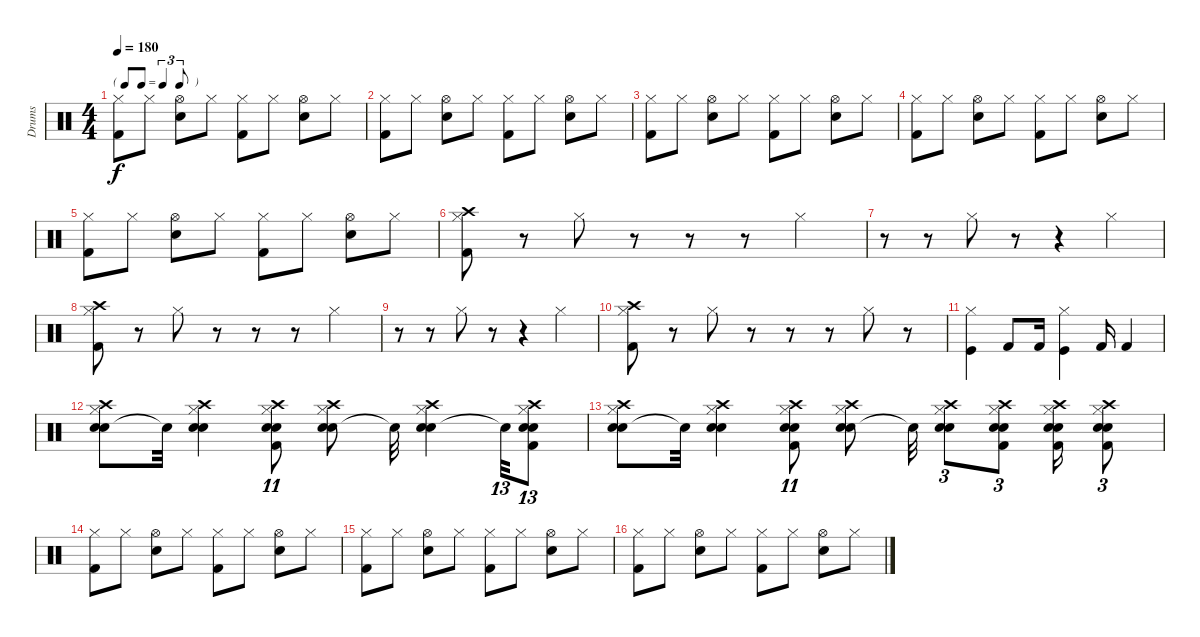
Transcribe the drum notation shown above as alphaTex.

\track ("Drums" "Drums") {instrument percussion}
\staff {score}
\articulation defaults
\ts (4 4)
\tf triplet8th
\tempo 180
\clef neutral
\ks c
("Hi-Hat (closed)" "Kick (hit) 2").8{dy f} "Hi-Hat (closed)".8 ("Hi-Hat (open)" "Snare (hit) 2").8 "Hi-Hat (closed)".8 ("Hi-Hat (closed)" "Kick (hit) 2").8 "Hi-Hat (closed)".8 ("Hi-Hat (open)" "Snare (hit) 2").8 "Hi-Hat (closed)".8 |
("Hi-Hat (closed)" "Kick (hit) 2").8 "Hi-Hat (closed)".8 ("Hi-Hat (open)" "Snare (hit) 2").8 "Hi-Hat (closed)".8 ("Hi-Hat (closed)" "Kick (hit) 2").8 "Hi-Hat (closed)".8 ("Hi-Hat (open)" "Snare (hit) 2").8 "Hi-Hat (closed)".8 |
("Hi-Hat (closed)" "Kick (hit) 2").8 "Hi-Hat (closed)".8 ("Hi-Hat (open)" "Snare (hit) 2").8 "Hi-Hat (closed)".8 ("Hi-Hat (closed)" "Kick (hit) 2").8 "Hi-Hat (closed)".8 ("Hi-Hat (open)" "Snare (hit) 2").8 "Hi-Hat (closed)".8 |
("Hi-Hat (closed)" "Kick (hit) 2").8 "Hi-Hat (closed)".8 ("Hi-Hat (open)" "Snare (hit) 2").8 "Hi-Hat (closed)".8 ("Hi-Hat (closed)" "Kick (hit) 2").8 "Hi-Hat (closed)".8 ("Hi-Hat (open)" "Snare (hit) 2").8 "Hi-Hat (closed)".8 |
("Hi-Hat (closed)" "Kick (hit) 2").8 "Hi-Hat (closed)".8 ("Hi-Hat (open)" "Snare (hit) 2").8 "Hi-Hat (closed)".8 ("Hi-Hat (closed)" "Kick (hit) 2").8 "Hi-Hat (closed)".8 ("Hi-Hat (open)" "Snare (hit) 2").8 "Hi-Hat (closed)".8 |
("Crash high (hit)" "Kick (hit) 2" "Hi-Hat (closed)").8 r.8 "Hi-Hat (closed)".8 r.8 r.8 r.8 "Hi-Hat (closed)".4 |
r.8 r.8 "Hi-Hat (closed)".8 r.8 r.4 "Hi-Hat (closed)".4 |
("Crash high (hit)" "Kick (hit) 2" "Hi-Hat (closed)").8 r.8 "Hi-Hat (closed)".8 r.8 r.8 r.8 "Hi-Hat (closed)".4 |
r.8 r.8 "Hi-Hat (closed)".8 r.8 r.4 "Hi-Hat (closed)".4 |
("Crash high (hit)" "Kick (hit) 2" "Hi-Hat (closed)").8 r.8 "Hi-Hat (closed)".8 r.8 r.8 r.8 "Hi-Hat (closed)".8 r.8 |
("Hi-Hat (closed)" "Kick (hit)").4 "Kick (hit) 2".8 "Kick (hit) 2".16 ("Kick (hit)" "Hi-Hat (closed)").4 "Kick (hit) 2".16 "Kick (hit) 2".4 |
("Snare (hit) 2" "Hi-Hat (closed)" "Crash high (hit)" "Electric Snare (hit)").8 "Snare (hit)"{t}.32 ("Snare (hit) 2" "Hi-Hat (closed)" "Crash high (hit)" "Electric Snare (hit)").4 ("Snare (hit) 2" "Kick (hit) 2" "Hi-Hat (closed)" "Crash high (hit)" "Electric Snare (hit)").8{tu (11 8)} ("Snare (hit) 2" "Hi-Hat (closed)" "Crash high (hit)" "Electric Snare (hit)").8 "Snare (hit)"{t}.32 ("Snare (hit) 2" "Hi-Hat (closed)" "Crash high (hit)" "Electric Snare (hit)").4 "Snare (hit)"{t}.32{tu (13 8)} ("Snare (hit) 2" "Kick (hit) 2" "Hi-Hat (closed)" "Crash high (hit)" "Electric Snare (hit)").8{tu (13 8)} |
("Snare (hit) 2" "Hi-Hat (closed)" "Crash high (hit)" "Electric Snare (hit)").8 "Snare (hit)"{t}.32 ("Snare (hit) 2" "Hi-Hat (closed)" "Crash high (hit)" "Electric Snare (hit)").4 ("Snare (hit) 2" "Kick (hit) 2" "Hi-Hat (closed)" "Crash high (hit)" "Electric Snare (hit)").8{tu (11 8)} ("Snare (hit) 2" "Hi-Hat (closed)" "Crash high (hit)" "Electric Snare (hit)").8 "Snare (hit)"{t}.32 ("Snare (hit) 2" "Hi-Hat (closed)" "Crash high (hit)" "Electric Snare (hit)").8{tu (3 2)} ("Snare (hit) 2" "Hi-Hat (closed)" "Crash high (hit)" "Kick (hit) 2" "Electric Snare (hit)").8{tu (3 2)} ("Snare (hit) 2" "Hi-Hat (closed)" "Crash high (hit)" "Kick (hit) 2" "Electric Snare (hit)").16 ("Snare (hit) 2" "Hi-Hat (closed)" "Crash high (hit)" "Kick (hit) 2" "Electric Snare (hit)").8{tu (3 2)} |
("Hi-Hat (closed)" "Kick (hit) 2").8 "Hi-Hat (closed)".8 ("Hi-Hat (open)" "Snare (hit) 2").8 "Hi-Hat (closed)".8 ("Hi-Hat (closed)" "Kick (hit) 2").8 "Hi-Hat (closed)".8 ("Hi-Hat (open)" "Snare (hit) 2").8 "Hi-Hat (closed)".8 |
("Hi-Hat (closed)" "Kick (hit) 2").8 "Hi-Hat (closed)".8 ("Hi-Hat (open)" "Snare (hit) 2").8 "Hi-Hat (closed)".8 ("Hi-Hat (closed)" "Kick (hit) 2").8 "Hi-Hat (closed)".8 ("Hi-Hat (open)" "Snare (hit) 2").8 "Hi-Hat (closed)".8 |
("Hi-Hat (closed)" "Kick (hit) 2").8 "Hi-Hat (closed)".8 ("Hi-Hat (open)" "Snare (hit) 2").8 "Hi-Hat (closed)".8 ("Hi-Hat (closed)" "Kick (hit) 2").8 "Hi-Hat (closed)".8 ("Hi-Hat (open)" "Snare (hit) 2").8 "Hi-Hat (closed)".8
